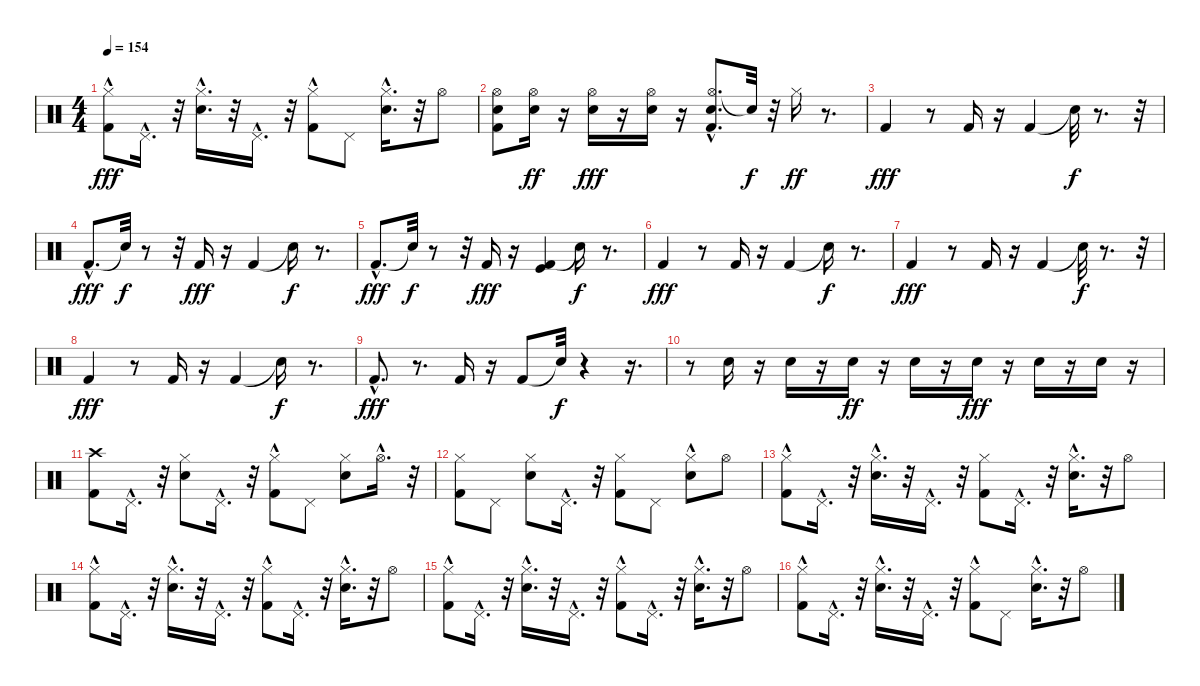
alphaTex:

\track "" {instrument percussion}
\staff {score}
\articulation defaults
\ts (4 4)
\tempo 154
\clef neutral
\ks c
("Kick (hit) 2" "Hi-Hat (closed)"{hac}).8{dy fff} "Pedal Hi-Hat (hit)"{hac}.16{d} r.32 ("Electric Snare (hit)"{hac} "Hi-Hat (closed)").16{d} r.32 "Pedal Hi-Hat (hit)"{hac}.16{d} r.32 ("Hi-Hat (closed)"{hac} "Kick (hit) 2").8 "Pedal Hi-Hat (hit)".8 ("Electric Snare (hit)"{hac} "Hi-Hat (closed)").16{d} r.32 "Hi-Hat (open)".8 |
("Hi-Hat (open)" "Snare (hit) 2" "Kick (hit) 2").8 ("Hi-Hat (open)" "Snare (hit) 2").16{dy ff} r.16 ("Snare (hit) 2" "Hi-Hat (open)").16{dy fff} r.16 ("Snare (hit) 2" "Hi-Hat (open)").16 r.16 ("Hi-Hat (open)"{hac} "Snare (hit) 2" "Kick (hit) 2").8{d} "Snare (hit)"{t}.32{dy f} r.32 "Hi-Hat (closed)".16{dy ff} r.8{d} |
"Kick (hit) 2".4{dy fff} r.8 "Kick (hit) 2".16 r.16 "Kick (hit) 2".4 "Snare (hit)"{t}.32{dy f} r.8{d} r.32 |
"Kick (hit) 2"{hac}.8{d dy fff} "Snare (hit)"{t}.32{dy f} r.8 r.32 "Kick (hit) 2".16{dy fff} r.16 "Kick (hit) 2".4 "Snare (hit)"{t}.16{dy f} r.8{d} |
"Kick (hit) 2"{hac}.8{d dy fff} "Snare (hit)"{t}.32{dy f} r.8 r.32 "Kick (hit) 2".16{dy fff} r.16 ("Kick (hit) 2" "Kick (hit)").4 "Snare (hit)"{t}.16{dy f} r.8{d} |
"Kick (hit) 2".4{dy fff} r.8 "Kick (hit) 2".16 r.16 "Kick (hit) 2".4 "Snare (hit)"{t}.16{dy f} r.8{d} |
"Kick (hit) 2".4{dy fff} r.8 "Kick (hit) 2".16 r.16 "Kick (hit) 2".4 "Snare (hit)"{t}.32{dy f} r.8{d} r.32 |
"Kick (hit) 2".4{dy fff} r.8 "Kick (hit) 2".16 r.16 "Kick (hit) 2".4 "Snare (hit)"{t}.16{dy f} r.8{d} |
"Kick (hit) 2"{hac}.8{d dy fff} r.8{d} "Kick (hit) 2".16 r.16 "Kick (hit) 2".8 "Snare (hit)"{t}.32{dy f} r.4 r.16{d} |
r.8 "Electric Snare (hit)".16 r.16 "Electric Snare (hit)".16 r.16 "Electric Snare (hit)".16{dy ff} r.16 "Electric Snare (hit)".16 r.16 "Electric Snare (hit)".16{dy fff} r.16 "Electric Snare (hit)".16 r.16 "Electric Snare (hit)".16 r.16 |
("Crash high (hit)" "Kick (hit) 2").8 "Pedal Hi-Hat (hit)"{hac}.16{d} r.32 ("Electric Snare (hit)" "Hi-Hat (closed)").8 "Pedal Hi-Hat (hit)"{hac}.16{d} r.32 ("Hi-Hat (closed)"{hac} "Kick (hit) 2").8 "Pedal Hi-Hat (hit)".8 ("Electric Snare (hit)" "Hi-Hat (closed)").8 "Hi-Hat (open)"{hac}.16{d} r.32 |
("Hi-Hat (closed)" "Kick (hit) 2").8 "Pedal Hi-Hat (hit)".8 ("Hi-Hat (closed)" "Electric Snare (hit)").8 "Pedal Hi-Hat (hit)"{hac}.16{d} r.32 ("Hi-Hat (closed)" "Kick (hit) 2").8 "Pedal Hi-Hat (hit)".8 ("Hi-Hat (closed)"{hac} "Electric Snare (hit)").8 "Hi-Hat (open)".8 |
("Kick (hit) 2" "Hi-Hat (closed)"{hac}).8 "Pedal Hi-Hat (hit)"{hac}.16{d} r.32 ("Electric Snare (hit)"{hac} "Hi-Hat (closed)").16{d} r.32 "Pedal Hi-Hat (hit)"{hac}.16{d} r.32 ("Kick (hit) 2" "Hi-Hat (closed)").8 "Pedal Hi-Hat (hit)"{hac}.16{d} r.32 ("Hi-Hat (closed)"{hac} "Electric Snare (hit)"{hac}).16{d} r.32 "Hi-Hat (open)".8 |
("Kick (hit) 2" "Hi-Hat (closed)"{hac}).8 "Pedal Hi-Hat (hit)"{hac}.16{d} r.32 ("Electric Snare (hit)"{hac} "Hi-Hat (closed)").16{d} r.32 "Pedal Hi-Hat (hit)"{hac}.16{d} r.32 ("Hi-Hat (closed)"{hac} "Kick (hit) 2").8 "Pedal Hi-Hat (hit)"{hac}.16{d} r.32 ("Hi-Hat (closed)"{hac} "Electric Snare (hit)"{hac}).16{d} r.32 "Hi-Hat (open)".8 |
("Kick (hit) 2" "Hi-Hat (closed)"{hac}).8 "Pedal Hi-Hat (hit)"{hac}.16{d} r.32 ("Electric Snare (hit)"{hac} "Hi-Hat (closed)").16{d} r.32 "Pedal Hi-Hat (hit)"{hac}.16{d} r.32 ("Hi-Hat (closed)"{hac} "Kick (hit) 2").8 "Pedal Hi-Hat (hit)"{hac}.16{d} r.32 ("Hi-Hat (closed)"{hac} "Electric Snare (hit)"{hac}).16{d} r.32 "Hi-Hat (open)".8 |
("Kick (hit) 2" "Hi-Hat (closed)"{hac}).8 "Pedal Hi-Hat (hit)"{hac}.16{d} r.32 ("Electric Snare (hit)"{hac} "Hi-Hat (closed)").16{d} r.32 "Pedal Hi-Hat (hit)"{hac}.16{d} r.32 ("Hi-Hat (closed)"{hac} "Kick (hit) 2").8 "Pedal Hi-Hat (hit)".8 ("Electric Snare (hit)"{hac} "Hi-Hat (closed)").16{d} r.32 "Hi-Hat (open)".8
